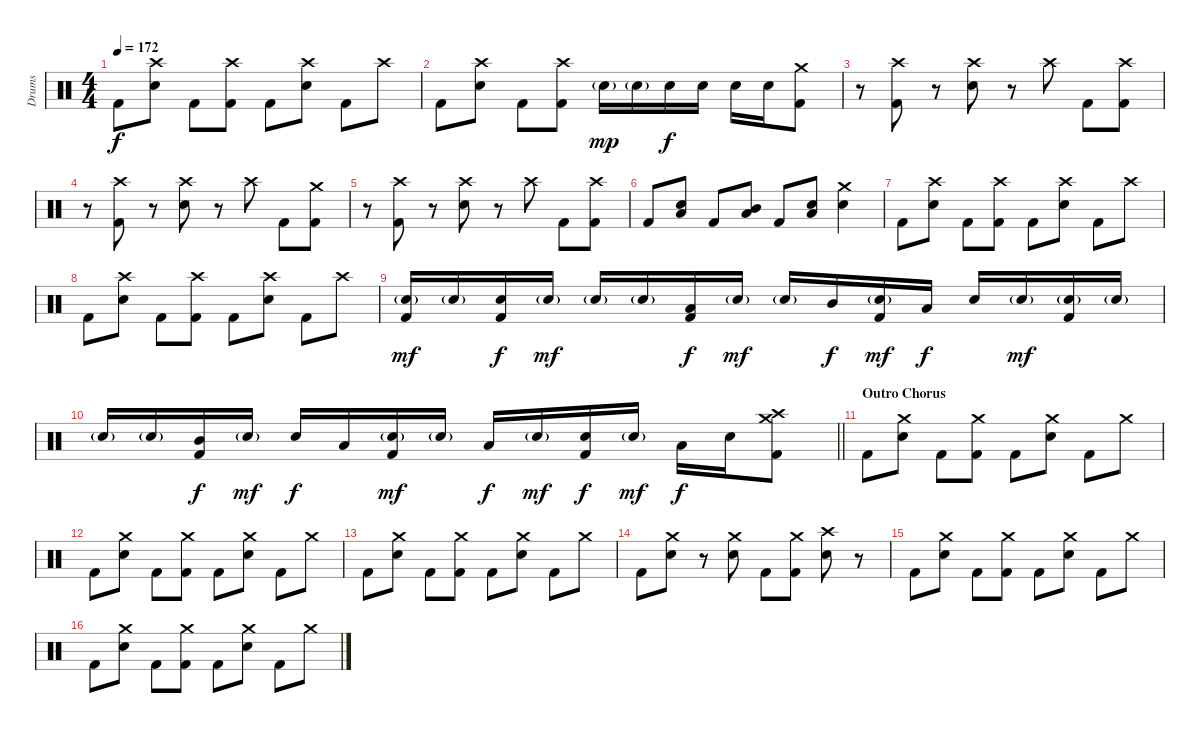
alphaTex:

\track ("Drums" "Drums") {instrument percussion}
\staff {score}
\articulation defaults
\ts (4 4)
\tempo 172
\clef neutral
\ks c "Kick (hit) 2".8{dy f}
("Crash high (hit)" "Electric Snare (hit)").8 "Kick (hit) 2".8 ("Crash high (hit)" "Kick (hit) 2").8 "Kick (hit) 2".8 ("Crash high (hit)" "Electric Snare (hit)").8 "Kick (hit) 2".8 "Crash high (hit)".8 |
"Kick (hit) 2".8 ("Crash high (hit)" "Electric Snare (hit)").8 "Kick (hit) 2".8 ("Crash high (hit)" "Kick (hit) 2").8 "Electric Snare (hit)"{g}.16{dy mp} "Electric Snare (hit)"{g}.16 "Electric Snare (hit)".16{dy f} "Electric Snare (hit)".16 "Electric Snare (hit)".16 "Electric Snare (hit)".16 ("Crash medium (hit)" "Kick (hit) 2").8 |
r.8 ("Crash high (hit)" "Kick (hit) 2").8 r.8 ("Crash high (hit)" "Electric Snare (hit)").8 r.8 "Crash high (hit)".8 "Kick (hit) 2".8 ("Crash high (hit)" "Kick (hit) 2").8 |
r.8 ("Crash high (hit)" "Kick (hit) 2").8 r.8 ("Crash high (hit)" "Electric Snare (hit)").8 r.8 "Crash high (hit)".8 "Kick (hit) 2".8 ("Crash medium (hit)" "Kick (hit) 2").8 |
r.8 ("Crash high (hit)" "Kick (hit) 2").8 r.8 ("Crash high (hit)" "Electric Snare (hit)").8 r.8 "Crash high (hit)".8 "Kick (hit) 2".8 ("Crash high (hit)" "Kick (hit) 2").8 |
"Kick (hit) 2".8 ("Low Floor Tom (hit)" "Electric Snare (hit)").8 "Kick (hit) 2".8 ("Mid Tom (hit)" "Low Tom (hit)").8 "Kick (hit) 2".8 ("Low Floor Tom (hit)" "Electric Snare (hit)").8 ("Crash medium (hit)" "Electric Snare (hit)").4 |
"Kick (hit) 2".8 ("Crash high (hit)" "Electric Snare (hit)").8 "Kick (hit) 2".8 ("Crash high (hit)" "Kick (hit) 2").8 "Kick (hit) 2".8 ("Crash high (hit)" "Electric Snare (hit)").8 "Kick (hit) 2".8 "Crash high (hit)".8 |
"Kick (hit) 2".8 ("Crash high (hit)" "Electric Snare (hit)").8 "Kick (hit) 2".8 ("Crash high (hit)" "Kick (hit) 2").8 "Kick (hit) 2".8 ("Crash high (hit)" "Electric Snare (hit)").8 "Kick (hit) 2".8 "Crash high (hit)".8 |
("Electric Snare (hit)"{g} "Kick (hit) 2").16{dy mf} "Electric Snare (hit)"{g}.16 ("Electric Snare (hit)" "Kick (hit) 2").16{dy f} "Electric Snare (hit)"{g}.16{dy mf} "Electric Snare (hit)"{g}.16 "Electric Snare (hit)"{g}.16 ("Low Tom (hit)" "Kick (hit) 2").16{dy f} "Electric Snare (hit)"{g}.16{dy mf} "Electric Snare (hit)"{g}.16 "Mid Tom (hit)".16{dy f} ("Electric Snare (hit)"{g} "Kick (hit) 2").16{dy mf} "Low Tom (hit)".16{dy f} "Electric Snare (hit)".16 "Electric Snare (hit)"{g}.16{dy mf} ("Electric Snare (hit)"{g} "Kick (hit) 2").16 "Electric Snare (hit)"{g}.16 |
\barLineRight lightlight "Electric Snare (hit)"{g}.16 "Electric Snare (hit)"{g}.16
("Mid Tom (hit)" "Kick (hit) 2").16{dy f} "Electric Snare (hit)"{g}.16{dy mf} "Electric Snare (hit)".16{dy f} "Low Tom (hit)".16 ("Electric Snare (hit)"{g} "Kick (hit) 2").16{dy mf} "Electric Snare (hit)"{g}.16 "Low Floor Tom (hit)".16{dy f} "Electric Snare (hit)"{g}.16{dy mf} ("Electric Snare (hit)" "Kick (hit) 2").16{dy f} "Electric Snare (hit)"{g}.16{dy mf} "Low Tom (hit)".16{dy f} "Electric Snare (hit)".16 ("Crash high (hit)" "Crash medium (hit)" "Kick (hit) 2").8 |
\section ("" "Outro Chorus")
"Kick (hit) 2".8 ("Crash medium (hit)" "Electric Snare (hit)").8 "Kick (hit) 2".8 ("Crash medium (hit)" "Kick (hit) 2").8 "Kick (hit) 2".8 ("Crash medium (hit)" "Electric Snare (hit)").8 "Kick (hit) 2".8 "Crash medium (hit)".8 |
"Kick (hit) 2".8 ("Crash medium (hit)" "Electric Snare (hit)").8 "Kick (hit) 2".8 ("Crash medium (hit)" "Kick (hit) 2").8 "Kick (hit) 2".8 ("Crash medium (hit)" "Electric Snare (hit)").8 "Kick (hit) 2".8 "Crash medium (hit)".8 |
"Kick (hit) 2".8 ("Crash medium (hit)" "Electric Snare (hit)").8 "Kick (hit) 2".8 ("Crash medium (hit)" "Kick (hit) 2").8 "Kick (hit) 2".8 ("Crash medium (hit)" "Electric Snare (hit)").8 "Kick (hit) 2".8 "Crash medium (hit)".8 |
"Kick (hit) 2".8 ("Crash medium (hit)" "Electric Snare (hit)").8 r.8 ("Crash medium (hit)" "Electric Snare (hit)").8 "Kick (hit) 2".8 ("Crash medium (hit)" "Kick (hit) 2").8 ("Crash high (hit)" "Electric Snare (hit)").8 r.8 |
"Kick (hit) 2".8 ("Crash medium (hit)" "Electric Snare (hit)").8 "Kick (hit) 2".8 ("Crash medium (hit)" "Kick (hit) 2").8 "Kick (hit) 2".8 ("Crash medium (hit)" "Electric Snare (hit)").8 "Kick (hit) 2".8 "Crash medium (hit)".8 |
"Kick (hit) 2".8 ("Crash medium (hit)" "Electric Snare (hit)").8 "Kick (hit) 2".8 ("Crash medium (hit)" "Kick (hit) 2").8 "Kick (hit) 2".8 ("Crash medium (hit)" "Electric Snare (hit)").8 "Kick (hit) 2".8 "Crash medium (hit)".8
